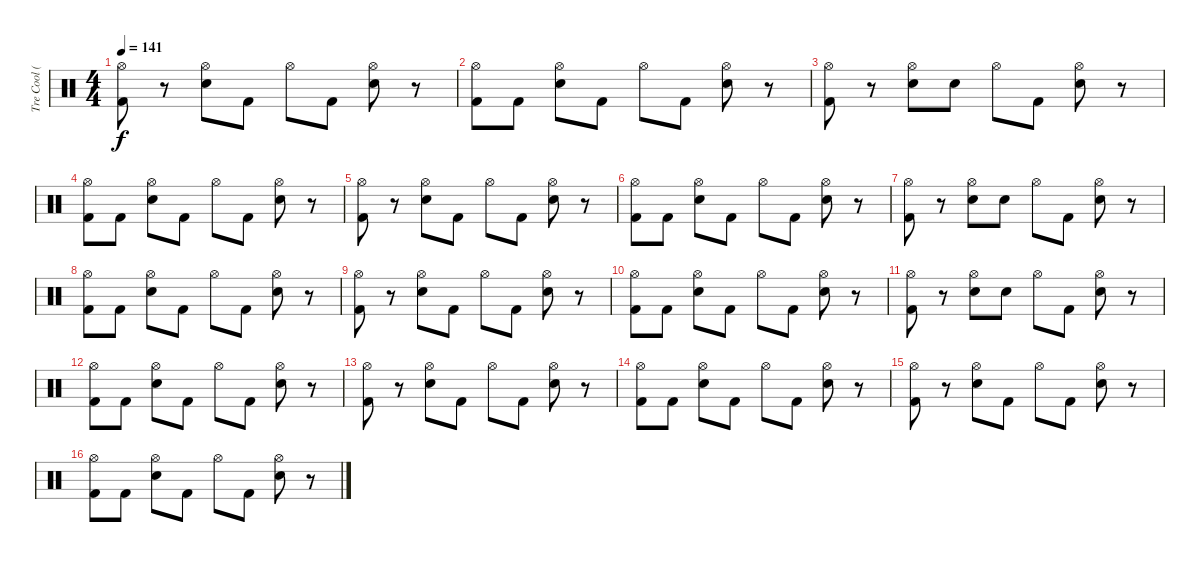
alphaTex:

\track ("Tre Cool (Drums)" "Tre Cool (") {instrument percussion}
\staff {score}
\articulation defaults
\ts (4 4)
\tempo 141
\clef neutral
\ks c
("Kick (hit) 2" "Hi-Hat (open)").8{dy f} r.8 ("Electric Snare (hit)" "Hi-Hat (open)").8 "Kick (hit) 2".8 "Hi-Hat (open)".8 "Kick (hit) 2".8 ("Electric Snare (hit)" "Hi-Hat (open)").8 r.8 |
("Kick (hit) 2" "Hi-Hat (open)").8 "Kick (hit) 2".8 ("Electric Snare (hit)" "Hi-Hat (open)").8 "Kick (hit) 2".8 "Hi-Hat (open)".8 "Kick (hit) 2".8 ("Electric Snare (hit)" "Hi-Hat (open)").8 r.8 |
("Kick (hit) 2" "Hi-Hat (open)").8 r.8 ("Electric Snare (hit)" "Hi-Hat (open)").8 "Electric Snare (hit)".8 "Hi-Hat (open)".8 "Kick (hit) 2".8 ("Electric Snare (hit)" "Hi-Hat (open)").8 r.8 |
("Kick (hit) 2" "Hi-Hat (open)").8 "Kick (hit) 2".8 ("Electric Snare (hit)" "Hi-Hat (open)").8 "Kick (hit) 2".8 "Hi-Hat (open)".8 "Kick (hit) 2".8 ("Electric Snare (hit)" "Hi-Hat (open)").8 r.8 |
("Kick (hit) 2" "Hi-Hat (open)").8 r.8 ("Electric Snare (hit)" "Hi-Hat (open)").8 "Kick (hit) 2".8 "Hi-Hat (open)".8 "Kick (hit) 2".8 ("Electric Snare (hit)" "Hi-Hat (open)").8 r.8 |
("Kick (hit) 2" "Hi-Hat (open)").8 "Kick (hit) 2".8 ("Electric Snare (hit)" "Hi-Hat (open)").8 "Kick (hit) 2".8 "Hi-Hat (open)".8 "Kick (hit) 2".8 ("Electric Snare (hit)" "Hi-Hat (open)").8 r.8 |
("Kick (hit) 2" "Hi-Hat (open)").8 r.8 ("Electric Snare (hit)" "Hi-Hat (open)").8 "Electric Snare (hit)".8 "Hi-Hat (open)".8 "Kick (hit) 2".8 ("Electric Snare (hit)" "Hi-Hat (open)").8 r.8 |
("Kick (hit) 2" "Hi-Hat (open)").8 "Kick (hit) 2".8 ("Electric Snare (hit)" "Hi-Hat (open)").8 "Kick (hit) 2".8 "Hi-Hat (open)".8 "Kick (hit) 2".8 ("Electric Snare (hit)" "Hi-Hat (open)").8 r.8 |
("Kick (hit) 2" "Hi-Hat (open)").8 r.8 ("Electric Snare (hit)" "Hi-Hat (open)").8 "Kick (hit) 2".8 "Hi-Hat (open)".8 "Kick (hit) 2".8 ("Electric Snare (hit)" "Hi-Hat (open)").8 r.8 |
("Kick (hit) 2" "Hi-Hat (open)").8 "Kick (hit) 2".8 ("Electric Snare (hit)" "Hi-Hat (open)").8 "Kick (hit) 2".8 "Hi-Hat (open)".8 "Kick (hit) 2".8 ("Electric Snare (hit)" "Hi-Hat (open)").8 r.8 |
("Kick (hit) 2" "Hi-Hat (open)").8 r.8 ("Electric Snare (hit)" "Hi-Hat (open)").8 "Electric Snare (hit)".8 "Hi-Hat (open)".8 "Kick (hit) 2".8 ("Electric Snare (hit)" "Hi-Hat (open)").8 r.8 |
("Kick (hit) 2" "Hi-Hat (open)").8 "Kick (hit) 2".8 ("Electric Snare (hit)" "Hi-Hat (open)").8 "Kick (hit) 2".8 "Hi-Hat (open)".8 "Kick (hit) 2".8 ("Electric Snare (hit)" "Hi-Hat (open)").8 r.8 |
("Kick (hit) 2" "Hi-Hat (open)").8 r.8 ("Electric Snare (hit)" "Hi-Hat (open)").8 "Kick (hit) 2".8 "Hi-Hat (open)".8 "Kick (hit) 2".8 ("Electric Snare (hit)" "Hi-Hat (open)").8 r.8 |
("Kick (hit) 2" "Hi-Hat (open)").8 "Kick (hit) 2".8 ("Electric Snare (hit)" "Hi-Hat (open)").8 "Kick (hit) 2".8 "Hi-Hat (open)".8 "Kick (hit) 2".8 ("Electric Snare (hit)" "Hi-Hat (open)").8 r.8 |
("Kick (hit) 2" "Hi-Hat (open)").8 r.8 ("Electric Snare (hit)" "Hi-Hat (open)").8 "Kick (hit) 2".8 "Hi-Hat (open)".8 "Kick (hit) 2".8 ("Electric Snare (hit)" "Hi-Hat (open)").8 r.8 |
("Kick (hit) 2" "Hi-Hat (open)").8 "Kick (hit) 2".8 ("Electric Snare (hit)" "Hi-Hat (open)").8 "Kick (hit) 2".8 "Hi-Hat (open)".8 "Kick (hit) 2".8 ("Electric Snare (hit)" "Hi-Hat (open)").8 r.8
